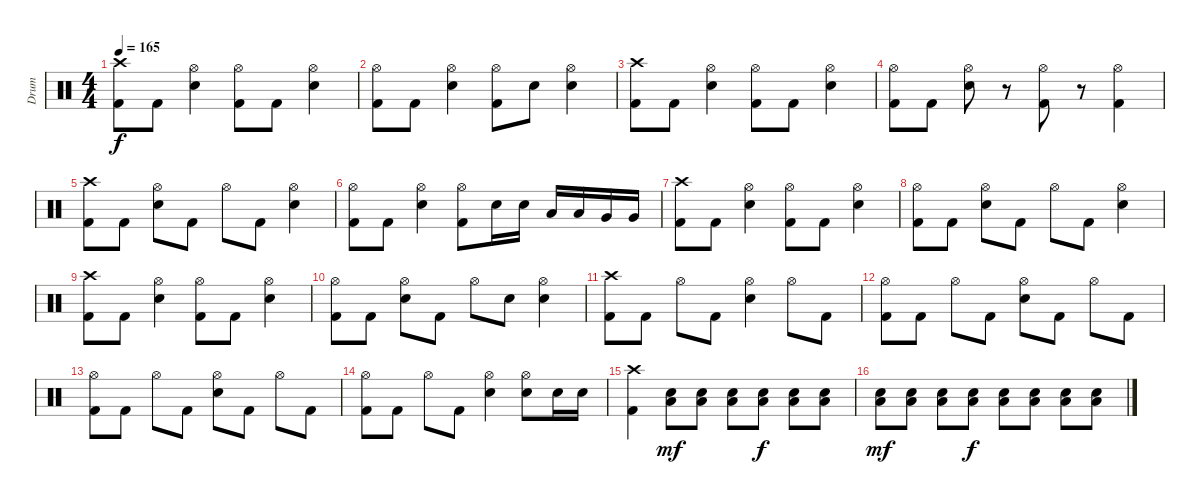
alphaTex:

\track ("Drum" "Drum") {instrument percussion}
\staff {score}
\articulation defaults
\ts (4 4)
\tempo 165
\clef neutral
\ks c
("Crash high (hit)" "Kick (hit) 2").8{dy f} "Kick (hit) 2".8 ("Hi-Hat (open)" "Electric Snare (hit)").4 ("Hi-Hat (open)" "Kick (hit) 2").8 "Kick (hit) 2".8 ("Hi-Hat (open)" "Electric Snare (hit)").4 |
("Hi-Hat (open)" "Kick (hit) 2").8 "Kick (hit) 2".8 ("Hi-Hat (open)" "Electric Snare (hit)").4 ("Hi-Hat (open)" "Kick (hit) 2").8 "Electric Snare (hit)".8 ("Hi-Hat (open)" "Electric Snare (hit)").4 |
("Crash high (hit)" "Kick (hit) 2").8 "Kick (hit) 2".8 ("Hi-Hat (open)" "Electric Snare (hit)").4 ("Hi-Hat (open)" "Kick (hit) 2").8 "Kick (hit) 2".8 ("Hi-Hat (open)" "Electric Snare (hit)").4 |
("Hi-Hat (open)" "Kick (hit) 2").8 "Kick (hit) 2".8 ("Hi-Hat (open)" "Electric Snare (hit)").8 r.8 ("Hi-Hat (open)" "Kick (hit) 2").8 r.8 ("Hi-Hat (open)" "Kick (hit) 2").4 |
("Crash high (hit)" "Kick (hit) 2").8 "Kick (hit) 2".8 ("Hi-Hat (open)" "Electric Snare (hit)").8 "Kick (hit) 2".8 "Hi-Hat (open)".8 "Kick (hit) 2".8 ("Hi-Hat (open)" "Electric Snare (hit)").4 |
("Hi-Hat (open)" "Kick (hit) 2").8 "Kick (hit) 2".8 ("Hi-Hat (open)" "Electric Snare (hit)").4 ("Hi-Hat (open)" "Kick (hit) 2").8 "Electric Snare (hit)".16 "Electric Snare (hit)".16 "Low Tom (hit)".16 "Low Tom (hit)".16 "Very Low Tom (hit)".16 "Very Low Tom (hit)".16 |
("Crash high (hit)" "Kick (hit) 2").8 "Kick (hit) 2".8 ("Hi-Hat (open)" "Electric Snare (hit)").4 ("Hi-Hat (open)" "Kick (hit) 2").8 "Kick (hit) 2".8 ("Hi-Hat (open)" "Electric Snare (hit)").4 |
("Hi-Hat (open)" "Kick (hit) 2").8 "Kick (hit) 2".8 ("Hi-Hat (open)" "Electric Snare (hit)").8 "Kick (hit) 2".8 "Hi-Hat (open)".8 "Kick (hit) 2".8 ("Hi-Hat (open)" "Electric Snare (hit)").4 |
("Crash high (hit)" "Kick (hit) 2").8 "Kick (hit) 2".8 ("Hi-Hat (open)" "Electric Snare (hit)").4 ("Hi-Hat (open)" "Kick (hit) 2").8 "Kick (hit) 2".8 ("Hi-Hat (open)" "Electric Snare (hit)").4 |
("Hi-Hat (open)" "Kick (hit) 2").8 "Kick (hit) 2".8 ("Hi-Hat (open)" "Electric Snare (hit)").8 "Kick (hit) 2".8 "Hi-Hat (open)".8 "Electric Snare (hit)".8 ("Hi-Hat (open)" "Electric Snare (hit)").4 |
("Crash high (hit)" "Kick (hit) 2").8 "Kick (hit) 2".8 "Hi-Hat (open)".8 "Kick (hit) 2".8 ("Hi-Hat (open)" "Electric Snare (hit)").4 "Hi-Hat (open)".8 "Kick (hit) 2".8 |
("Hi-Hat (open)" "Kick (hit) 2").8 "Kick (hit) 2".8 "Hi-Hat (open)".8 "Kick (hit) 2".8 ("Hi-Hat (open)" "Electric Snare (hit)").8 "Kick (hit) 2".8 "Hi-Hat (open)".8 "Kick (hit) 2".8 |
("Hi-Hat (open)" "Kick (hit) 2").8 "Kick (hit) 2".8 "Hi-Hat (open)".8 "Kick (hit) 2".8 ("Hi-Hat (open)" "Electric Snare (hit)").8 "Kick (hit) 2".8 "Hi-Hat (open)".8 "Kick (hit) 2".8 |
("Hi-Hat (open)" "Kick (hit) 2").8 "Kick (hit) 2".8 "Hi-Hat (open)".8 "Kick (hit) 2".8 ("Hi-Hat (open)" "Electric Snare (hit)").4 ("Hi-Hat (open)" "Electric Snare (hit)").8 "Electric Snare (hit)".16 "Electric Snare (hit)".16 |
("Crash high (hit)" "Kick (hit) 2").4 ("Electric Snare (hit)" "Low Tom (hit)").8{dy mf} ("Electric Snare (hit)" "Low Tom (hit)").8 ("Electric Snare (hit)" "Low Tom (hit)").8 ("Electric Snare (hit)" "Low Tom (hit)").8{dy f} ("Electric Snare (hit)" "Low Tom (hit)").8 ("Electric Snare (hit)" "Low Tom (hit)").8 |
("Electric Snare (hit)" "Low Tom (hit)").8{dy mf} ("Electric Snare (hit)" "Low Tom (hit)").8 ("Electric Snare (hit)" "Low Tom (hit)").8 ("Electric Snare (hit)" "Low Tom (hit)").8{dy f} ("Electric Snare (hit)" "Low Tom (hit)").8 ("Electric Snare (hit)" "Low Tom (hit)").8 ("Electric Snare (hit)" "Low Tom (hit)").8 ("Electric Snare (hit)" "Low Tom (hit)").8
